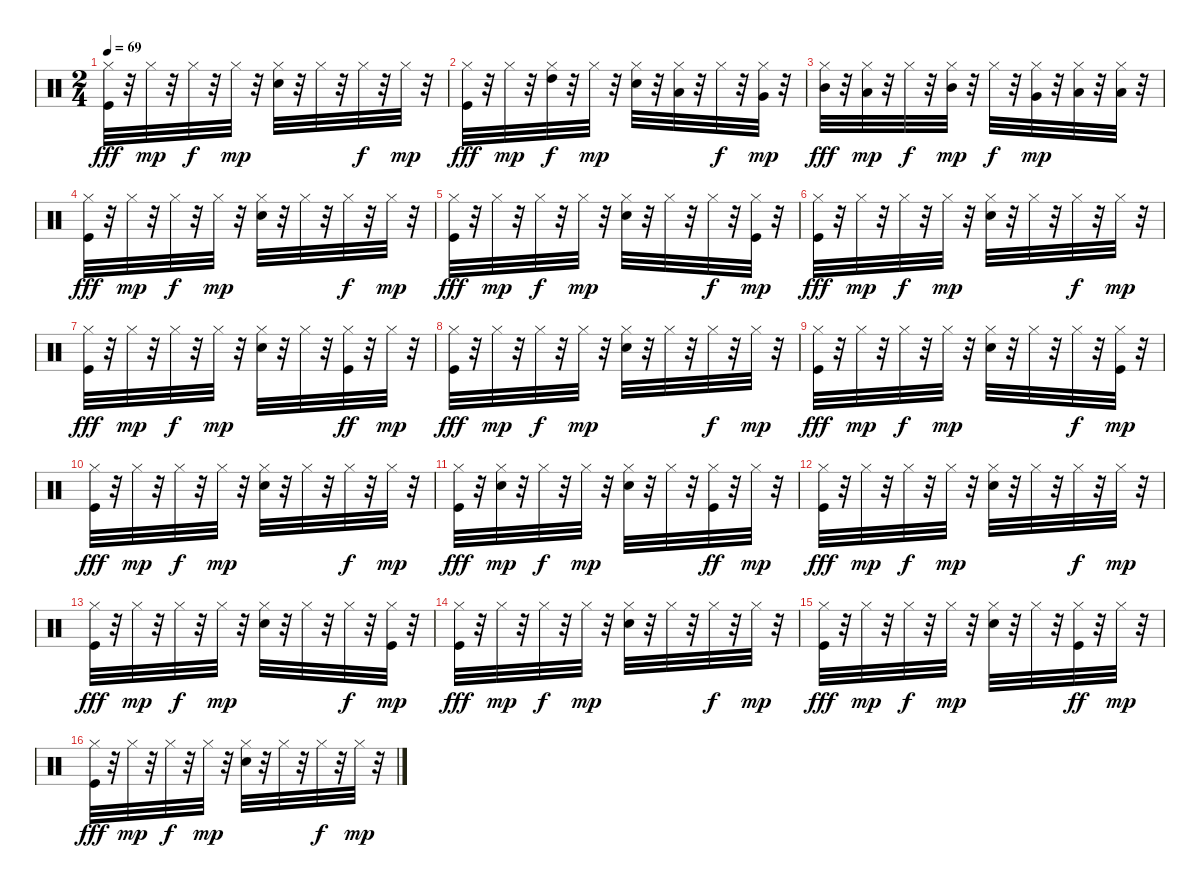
\track "" {instrument percussion}
\staff {score}
\articulation defaults
\ts (2 4)
\tempo 69
\clef neutral
\ks c
("Hi-Hat (closed)" "Kick (hit)").32{dy fff} r.32 "Hi-Hat (closed)".32{dy mp} r.32 "Hi-Hat (closed)".32{dy f} r.32 "Hi-Hat (closed)".32{dy mp} r.32 ("Metronome (bell)" "Hi-Hat (closed)").32 r.32 "Hi-Hat (closed)".32 r.32 "Hi-Hat (closed)".32{dy f} r.32 "Hi-Hat (closed)".32{dy mp} r.32 |
("Kick (hit)" "Hi-Hat (closed)").32{dy fff} r.32 "Hi-Hat (closed)".32{dy mp} r.32 ("Hi-Hat (closed)" "High Tom (hit)").32{dy f} r.32 "Hi-Hat (closed)".32{dy mp} r.32 ("Metronome (bell)" "Hi-Hat (closed)").32 r.32 ("Hi-Hat (closed)" "Low Tom (hit)").32 r.32 "Hi-Hat (closed)".32{dy f} r.32 ("Hi-Hat (closed)" "Very Low Tom (hit)").32{dy mp} r.32 |
("Hi-Hat (closed)" "Mid Tom (hit)").32{dy fff} r.32 ("Hi-Hat (closed)" "Low Tom (hit)").32{dy mp} r.32 "Hi-Hat (closed)".32{dy f} r.32 ("Hi-Hat (closed)" "Mid Tom (hit)").32{dy mp} r.32 "Hi-Hat (closed)".32{dy f} r.32 ("Very Low Tom (hit)" "Hi-Hat (closed)").32{dy mp} r.32 ("Low Floor Tom (hit)" "Hi-Hat (closed)").32 r.32 ("Low Floor Tom (hit)" "Hi-Hat (closed)").32 r.32 |
("Hi-Hat (closed)" "Kick (hit)").32{dy fff} r.32 "Hi-Hat (closed)".32{dy mp} r.32 "Hi-Hat (closed)".32{dy f} r.32 "Hi-Hat (closed)".32{dy mp} r.32 ("Metronome (bell)" "Hi-Hat (closed)").32 r.32 "Hi-Hat (closed)".32 r.32 "Hi-Hat (closed)".32{dy f} r.32 "Hi-Hat (closed)".32{dy mp} r.32 |
("Kick (hit)" "Hi-Hat (closed)").32{dy fff} r.32 "Hi-Hat (closed)".32{dy mp} r.32 "Hi-Hat (closed)".32{dy f} r.32 "Hi-Hat (closed)".32{dy mp} r.32 ("Metronome (bell)" "Hi-Hat (closed)").32 r.32 "Hi-Hat (closed)".32 r.32 "Hi-Hat (closed)".32{dy f} r.32 ("Kick (hit)" "Hi-Hat (closed)").32{dy mp} r.32 |
("Hi-Hat (closed)" "Kick (hit)").32{dy fff} r.32 "Hi-Hat (closed)".32{dy mp} r.32 "Hi-Hat (closed)".32{dy f} r.32 "Hi-Hat (closed)".32{dy mp} r.32 ("Metronome (bell)" "Hi-Hat (closed)").32 r.32 "Hi-Hat (closed)".32 r.32 "Hi-Hat (closed)".32{dy f} r.32 "Hi-Hat (closed)".32{dy mp} r.32 |
("Kick (hit)" "Hi-Hat (closed)").32{dy fff} r.32 "Hi-Hat (closed)".32{dy mp} r.32 "Hi-Hat (closed)".32{dy f} r.32 "Hi-Hat (closed)".32{dy mp} r.32 ("Metronome (bell)" "Hi-Hat (closed)").32 r.32 "Hi-Hat (closed)".32 r.32 ("Hi-Hat (closed)" "Kick (hit)").32{dy ff} r.32 "Hi-Hat (closed)".32{dy mp} r.32 |
("Hi-Hat (closed)" "Kick (hit)").32{dy fff} r.32 "Hi-Hat (closed)".32{dy mp} r.32 "Hi-Hat (closed)".32{dy f} r.32 "Hi-Hat (closed)".32{dy mp} r.32 ("Metronome (bell)" "Hi-Hat (closed)").32 r.32 "Hi-Hat (closed)".32 r.32 "Hi-Hat (closed)".32{dy f} r.32 "Hi-Hat (closed)".32{dy mp} r.32 |
("Kick (hit)" "Hi-Hat (closed)").32{dy fff} r.32 "Hi-Hat (closed)".32{dy mp} r.32 "Hi-Hat (closed)".32{dy f} r.32 "Hi-Hat (closed)".32{dy mp} r.32 ("Metronome (bell)" "Hi-Hat (closed)").32 r.32 "Hi-Hat (closed)".32 r.32 "Hi-Hat (closed)".32{dy f} r.32 ("Kick (hit)" "Hi-Hat (closed)").32{dy mp} r.32 |
("Hi-Hat (closed)" "Kick (hit)").32{dy fff} r.32 "Hi-Hat (closed)".32{dy mp} r.32 "Hi-Hat (closed)".32{dy f} r.32 "Hi-Hat (closed)".32{dy mp} r.32 ("Metronome (bell)" "Hi-Hat (closed)").32 r.32 "Hi-Hat (closed)".32 r.32 "Hi-Hat (closed)".32{dy f} r.32 "Hi-Hat (closed)".32{dy mp} r.32 |
("Kick (hit)" "Hi-Hat (closed)").32{dy fff} r.32 ("Hi-Hat (closed)" "Metronome (bell)").32{dy mp} r.32 "Hi-Hat (closed)".32{dy f} r.32 "Hi-Hat (closed)".32{dy mp} r.32 ("Metronome (bell)" "Hi-Hat (closed)").32 r.32 "Hi-Hat (closed)".32 r.32 ("Hi-Hat (closed)" "Kick (hit)").32{dy ff} r.32 "Hi-Hat (closed)".32{dy mp} r.32 |
("Hi-Hat (closed)" "Kick (hit)").32{dy fff} r.32 "Hi-Hat (closed)".32{dy mp} r.32 "Hi-Hat (closed)".32{dy f} r.32 "Hi-Hat (closed)".32{dy mp} r.32 ("Metronome (bell)" "Hi-Hat (closed)").32 r.32 "Hi-Hat (closed)".32 r.32 "Hi-Hat (closed)".32{dy f} r.32 "Hi-Hat (closed)".32{dy mp} r.32 |
("Kick (hit)" "Hi-Hat (closed)").32{dy fff} r.32 "Hi-Hat (closed)".32{dy mp} r.32 "Hi-Hat (closed)".32{dy f} r.32 "Hi-Hat (closed)".32{dy mp} r.32 ("Metronome (bell)" "Hi-Hat (closed)").32 r.32 "Hi-Hat (closed)".32 r.32 "Hi-Hat (closed)".32{dy f} r.32 ("Kick (hit)" "Hi-Hat (closed)").32{dy mp} r.32 |
("Hi-Hat (closed)" "Kick (hit)").32{dy fff} r.32 "Hi-Hat (closed)".32{dy mp} r.32 "Hi-Hat (closed)".32{dy f} r.32 "Hi-Hat (closed)".32{dy mp} r.32 ("Metronome (bell)" "Hi-Hat (closed)").32 r.32 "Hi-Hat (closed)".32 r.32 "Hi-Hat (closed)".32{dy f} r.32 "Hi-Hat (closed)".32{dy mp} r.32 |
("Kick (hit)" "Hi-Hat (closed)").32{dy fff} r.32 "Hi-Hat (closed)".32{dy mp} r.32 "Hi-Hat (closed)".32{dy f} r.32 "Hi-Hat (closed)".32{dy mp} r.32 ("Metronome (bell)" "Hi-Hat (closed)").32 r.32 "Hi-Hat (closed)".32 r.32 ("Hi-Hat (closed)" "Kick (hit)").32{dy ff} r.32 "Hi-Hat (closed)".32{dy mp} r.32 |
("Hi-Hat (closed)" "Kick (hit)").32{dy fff} r.32 "Hi-Hat (closed)".32{dy mp} r.32 "Hi-Hat (closed)".32{dy f} r.32 "Hi-Hat (closed)".32{dy mp} r.32 ("Metronome (bell)" "Hi-Hat (closed)").32 r.32 "Hi-Hat (closed)".32 r.32 "Hi-Hat (closed)".32{dy f} r.32 "Hi-Hat (closed)".32{dy mp} r.32
